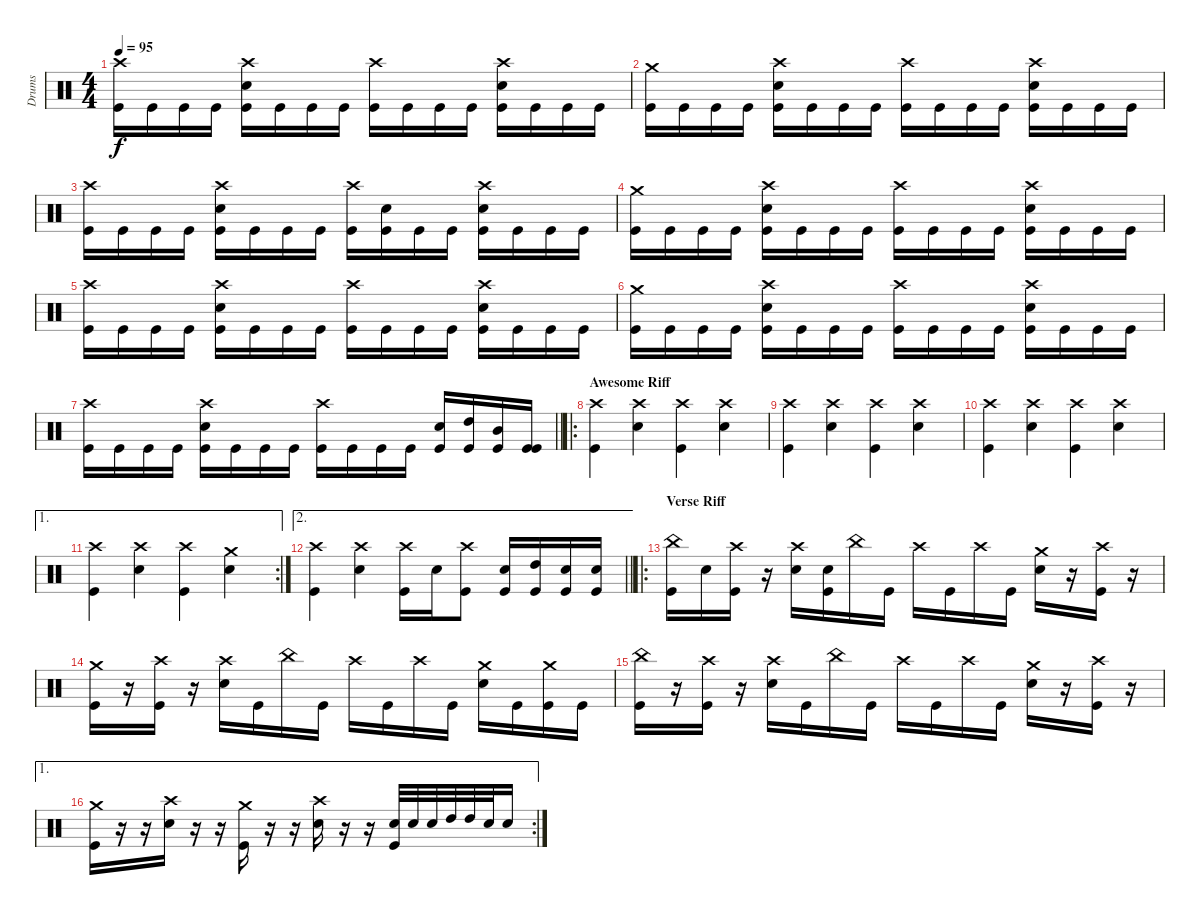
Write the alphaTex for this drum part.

\track ("Drums" "Drums") {instrument percussion}
\staff {score}
\articulation defaults
\ts (4 4)
\tempo 95
\clef neutral
\ks c
("Crash high (hit)" "Kick (hit)").16{dy f} "Kick (hit)".16 "Kick (hit)".16 "Kick (hit)".16 ("Crash high (hit)" "Snare (hit) 2" "Kick (hit)").16 "Kick (hit)".16 "Kick (hit)".16 "Kick (hit)".16 ("Crash high (hit)" "Kick (hit)").16 "Kick (hit)".16 "Kick (hit)".16 "Kick (hit)".16 ("Crash high (hit)" "Snare (hit) 2" "Kick (hit)").16 "Kick (hit)".16 "Kick (hit)".16 "Kick (hit)".16 |
("Crash medium (hit)" "Kick (hit)").16 "Kick (hit)".16 "Kick (hit)".16 "Kick (hit)".16 ("Crash high (hit)" "Snare (hit) 2" "Kick (hit)").16 "Kick (hit)".16 "Kick (hit)".16 "Kick (hit)".16 ("Crash high (hit)" "Kick (hit)").16 "Kick (hit)".16 "Kick (hit)".16 "Kick (hit)".16 ("Crash high (hit)" "Snare (hit) 2" "Kick (hit)").16 "Kick (hit)".16 "Kick (hit)".16 "Kick (hit)".16 |
("Crash high (hit)" "Kick (hit)").16 "Kick (hit)".16 "Kick (hit)".16 "Kick (hit)".16 ("Crash high (hit)" "Snare (hit) 2" "Kick (hit)").16 "Kick (hit)".16 "Kick (hit)".16 "Kick (hit)".16 ("Crash high (hit)" "Kick (hit)").16 ("Snare (hit) 2" "Kick (hit)").16 "Kick (hit)".16 "Kick (hit)".16 ("Crash high (hit)" "Snare (hit) 2" "Kick (hit)").16 "Kick (hit)".16 "Kick (hit)".16 "Kick (hit)".16 |
("Crash medium (hit)" "Kick (hit)").16 "Kick (hit)".16 "Kick (hit)".16 "Kick (hit)".16 ("Crash high (hit)" "Snare (hit) 2" "Kick (hit)").16 "Kick (hit)".16 "Kick (hit)".16 "Kick (hit)".16 ("Crash high (hit)" "Kick (hit)").16 "Kick (hit)".16 "Kick (hit)".16 "Kick (hit)".16 ("Crash high (hit)" "Snare (hit) 2" "Kick (hit)").16 "Kick (hit)".16 "Kick (hit)".16 "Kick (hit)".16 |
("Crash high (hit)" "Kick (hit)").16 "Kick (hit)".16 "Kick (hit)".16 "Kick (hit)".16 ("Crash high (hit)" "Snare (hit) 2" "Kick (hit)").16 "Kick (hit)".16 "Kick (hit)".16 "Kick (hit)".16 ("Crash high (hit)" "Kick (hit)").16 "Kick (hit)".16 "Kick (hit)".16 "Kick (hit)".16 ("Crash high (hit)" "Snare (hit) 2" "Kick (hit)").16 "Kick (hit)".16 "Kick (hit)".16 "Kick (hit)".16 |
("Crash medium (hit)" "Kick (hit)").16 "Kick (hit)".16 "Kick (hit)".16 "Kick (hit)".16 ("Crash high (hit)" "Snare (hit) 2" "Kick (hit)").16 "Kick (hit)".16 "Kick (hit)".16 "Kick (hit)".16 ("Crash high (hit)" "Kick (hit)").16 "Kick (hit)".16 "Kick (hit)".16 "Kick (hit)".16 ("Crash high (hit)" "Snare (hit) 2" "Kick (hit)").16 "Kick (hit)".16 "Kick (hit)".16 "Kick (hit)".16 |
\barLineRight lightlight
("Crash high (hit)" "Kick (hit)").16 "Kick (hit)".16 "Kick (hit)".16 "Kick (hit)".16 ("Crash high (hit)" "Snare (hit) 2" "Kick (hit)").16 "Kick (hit)".16 "Kick (hit)".16 "Kick (hit)".16 ("Crash high (hit)" "Kick (hit)").16 "Kick (hit)".16 "Kick (hit)".16 "Kick (hit)".16 ("Snare (hit) 2" "Kick (hit)").16 ("High Tom (hit)" "Kick (hit)").16 ("Mid Tom (hit)" "Kick (hit)").16 ("Kick (hit)" "Kick (hit)").16 |
\ro
\section ("" "Awesome Riff")
("Crash high (hit)" "Kick (hit)").4 ("Crash high (hit)" "Snare (hit) 2").4 ("Crash high (hit)" "Kick (hit)").4 ("Crash high (hit)" "Snare (hit) 2").4 |
("Crash high (hit)" "Kick (hit)").4 ("Crash high (hit)" "Snare (hit) 2").4 ("Crash high (hit)" "Kick (hit)").4 ("Crash high (hit)" "Snare (hit) 2").4 |
("Crash high (hit)" "Kick (hit)").4 ("Crash high (hit)" "Snare (hit) 2").4 ("Crash high (hit)" "Kick (hit)").4 ("Crash high (hit)" "Snare (hit) 2").4 |
\ae 1
\rc 2
("Crash high (hit)" "Kick (hit)").4 ("Crash high (hit)" "Snare (hit) 2").4 ("Crash high (hit)" "Kick (hit)").4 ("Crash medium (hit)" "Snare (hit) 2").4 |
\ae 2
\barLineRight lightlight
("Crash high (hit)" "Kick (hit)").4 ("Crash high (hit)" "Snare (hit) 2").4 ("Crash high (hit)" "Kick (hit)").16 "Snare (hit) 2".16 ("Crash high (hit)" "Kick (hit)").8 ("Snare (hit) 2" "Kick (hit)").16 ("High Tom (hit)" "Kick (hit)").16 ("Snare (hit) 2" "Kick (hit)").16 ("Snare (hit) 2" "Kick (hit)").16 |
\ro
\section ("" "Verse Riff")
("China (hit)" "Kick (hit)").16 "Snare (hit) 2".16 ("Crash high (hit)" "Kick (hit)").16 r.16 ("Crash high (hit)" "Snare (hit) 2").16 ("Snare (hit) 2" "Kick (hit)").16 "China (hit)".16 "Kick (hit)".16 "Crash high (hit)".16 "Kick (hit)".16 "Crash high (hit)".16 "Kick (hit)".16 ("Crash medium (hit)" "Snare (hit) 2").16 r.16 ("Crash high (hit)" "Kick (hit)").16 r.16 |
("Crash medium (hit)" "Kick (hit)").16 r.16 ("Crash high (hit)" "Kick (hit)").16 r.16 ("Crash high (hit)" "Snare (hit) 2").16 "Kick (hit)".16 "China (hit)".16 "Kick (hit)".16 "Crash high (hit)".16 "Kick (hit)".16 "Crash high (hit)".16 "Kick (hit)".16 ("Crash medium (hit)" "Snare (hit) 2").16 "Kick (hit)".16 ("Crash medium (hit)" "Kick (hit)").16 "Kick (hit)".16 |
("China (hit)" "Kick (hit)").16 r.16 ("Crash high (hit)" "Kick (hit)").16 r.16 ("Crash high (hit)" "Snare (hit) 2").16 "Kick (hit)".16 "China (hit)".16 "Kick (hit)".16 "Crash high (hit)".16 "Kick (hit)".16 "Crash high (hit)".16 "Kick (hit)".16 ("Crash medium (hit)" "Snare (hit) 2").16 r.16 ("Crash high (hit)" "Kick (hit)").16 r.16 |
\ae 1
\rc 2
("Crash medium (hit)" "Kick (hit)").16 r.16 r.16 ("Crash high (hit)" "Snare (hit) 2").16 r.16 r.16 ("Crash medium (hit)" "Kick (hit)").16 r.16 r.16 ("Crash high (hit)" "Snare (hit) 2").16 r.16 r.16 ("Snare (hit) 2" "Kick (hit)").32 "Snare (hit) 2".32 "Snare (hit) 2".32 "High Tom (hit)".32 "High Tom (hit)".32 "Snare (hit) 2".32 "Snare (hit) 2".16
